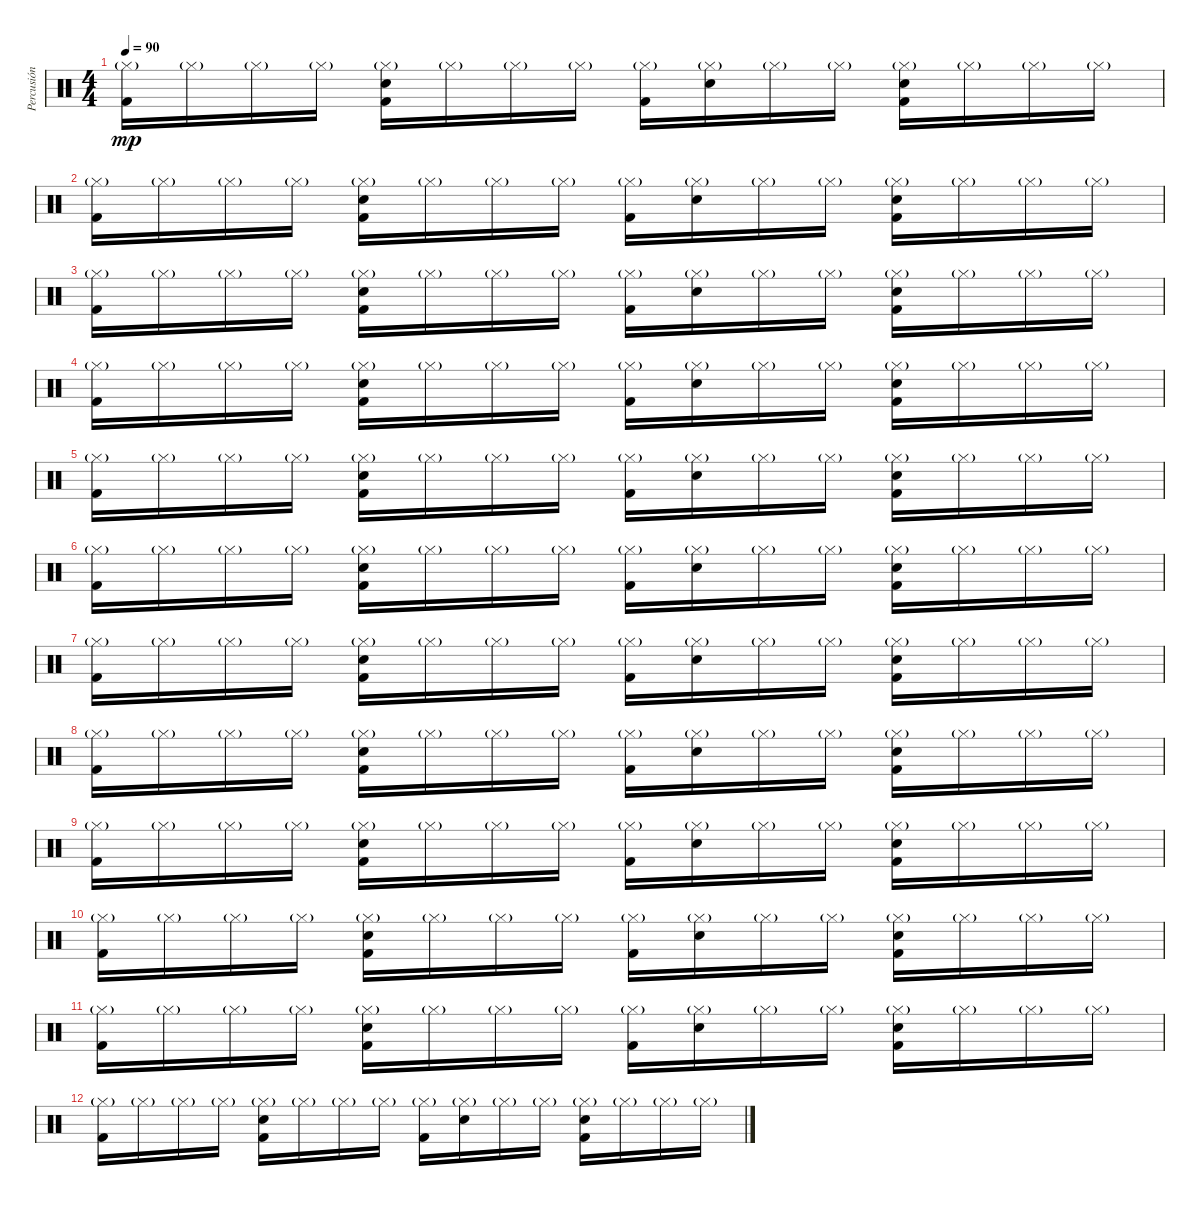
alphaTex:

\track ("Percusión" "Percusión") {instrument percussion}
\staff {score}
\articulation defaults
\ts (4 4)
\tempo 90
\clef neutral
\ks c
("Kick (hit) 2" "Hi-Hat (closed)"{g}).16{dy mp} "Hi-Hat (closed)"{g}.16 "Hi-Hat (closed)"{g}.16 "Hi-Hat (closed)"{g}.16 ("Kick (hit) 2" "Snare (hit) 2" "Hi-Hat (closed)"{g}).16 "Hi-Hat (closed)"{g}.16 "Hi-Hat (closed)"{g}.16 "Hi-Hat (closed)"{g}.16 ("Kick (hit) 2" "Hi-Hat (closed)"{g}).16 ("Snare (hit) 2" "Hi-Hat (closed)"{g}).16 "Hi-Hat (closed)"{g}.16 "Hi-Hat (closed)"{g}.16 ("Kick (hit) 2" "Snare (hit) 2" "Hi-Hat (closed)"{g}).16 "Hi-Hat (closed)"{g}.16 "Hi-Hat (closed)"{g}.16 "Hi-Hat (closed)"{g}.16 |
("Kick (hit) 2" "Hi-Hat (closed)"{g}).16 "Hi-Hat (closed)"{g}.16 "Hi-Hat (closed)"{g}.16 "Hi-Hat (closed)"{g}.16 ("Kick (hit) 2" "Snare (hit) 2" "Hi-Hat (closed)"{g}).16 "Hi-Hat (closed)"{g}.16 "Hi-Hat (closed)"{g}.16 "Hi-Hat (closed)"{g}.16 ("Kick (hit) 2" "Hi-Hat (closed)"{g}).16 ("Snare (hit) 2" "Hi-Hat (closed)"{g}).16 "Hi-Hat (closed)"{g}.16 "Hi-Hat (closed)"{g}.16 ("Kick (hit) 2" "Snare (hit) 2" "Hi-Hat (closed)"{g}).16 "Hi-Hat (closed)"{g}.16 "Hi-Hat (closed)"{g}.16 "Hi-Hat (closed)"{g}.16 |
("Kick (hit) 2" "Hi-Hat (closed)"{g}).16 "Hi-Hat (closed)"{g}.16 "Hi-Hat (closed)"{g}.16 "Hi-Hat (closed)"{g}.16 ("Kick (hit) 2" "Snare (hit) 2" "Hi-Hat (closed)"{g}).16 "Hi-Hat (closed)"{g}.16 "Hi-Hat (closed)"{g}.16 "Hi-Hat (closed)"{g}.16 ("Kick (hit) 2" "Hi-Hat (closed)"{g}).16 ("Snare (hit) 2" "Hi-Hat (closed)"{g}).16 "Hi-Hat (closed)"{g}.16 "Hi-Hat (closed)"{g}.16 ("Kick (hit) 2" "Snare (hit) 2" "Hi-Hat (closed)"{g}).16 "Hi-Hat (closed)"{g}.16 "Hi-Hat (closed)"{g}.16 "Hi-Hat (closed)"{g}.16 |
("Kick (hit) 2" "Hi-Hat (closed)"{g}).16 "Hi-Hat (closed)"{g}.16 "Hi-Hat (closed)"{g}.16 "Hi-Hat (closed)"{g}.16 ("Kick (hit) 2" "Snare (hit) 2" "Hi-Hat (closed)"{g}).16 "Hi-Hat (closed)"{g}.16 "Hi-Hat (closed)"{g}.16 "Hi-Hat (closed)"{g}.16 ("Kick (hit) 2" "Hi-Hat (closed)"{g}).16 ("Snare (hit) 2" "Hi-Hat (closed)"{g}).16 "Hi-Hat (closed)"{g}.16 "Hi-Hat (closed)"{g}.16 ("Kick (hit) 2" "Snare (hit) 2" "Hi-Hat (closed)"{g}).16 "Hi-Hat (closed)"{g}.16 "Hi-Hat (closed)"{g}.16 "Hi-Hat (closed)"{g}.16 |
("Kick (hit) 2" "Hi-Hat (closed)"{g}).16 "Hi-Hat (closed)"{g}.16 "Hi-Hat (closed)"{g}.16 "Hi-Hat (closed)"{g}.16 ("Kick (hit) 2" "Snare (hit) 2" "Hi-Hat (closed)"{g}).16 "Hi-Hat (closed)"{g}.16 "Hi-Hat (closed)"{g}.16 "Hi-Hat (closed)"{g}.16 ("Kick (hit) 2" "Hi-Hat (closed)"{g}).16 ("Snare (hit) 2" "Hi-Hat (closed)"{g}).16 "Hi-Hat (closed)"{g}.16 "Hi-Hat (closed)"{g}.16 ("Kick (hit) 2" "Snare (hit) 2" "Hi-Hat (closed)"{g}).16 "Hi-Hat (closed)"{g}.16 "Hi-Hat (closed)"{g}.16 "Hi-Hat (closed)"{g}.16 |
("Kick (hit) 2" "Hi-Hat (closed)"{g}).16 "Hi-Hat (closed)"{g}.16 "Hi-Hat (closed)"{g}.16 "Hi-Hat (closed)"{g}.16 ("Kick (hit) 2" "Snare (hit) 2" "Hi-Hat (closed)"{g}).16 "Hi-Hat (closed)"{g}.16 "Hi-Hat (closed)"{g}.16 "Hi-Hat (closed)"{g}.16 ("Kick (hit) 2" "Hi-Hat (closed)"{g}).16 ("Snare (hit) 2" "Hi-Hat (closed)"{g}).16 "Hi-Hat (closed)"{g}.16 "Hi-Hat (closed)"{g}.16 ("Kick (hit) 2" "Snare (hit) 2" "Hi-Hat (closed)"{g}).16 "Hi-Hat (closed)"{g}.16 "Hi-Hat (closed)"{g}.16 "Hi-Hat (closed)"{g}.16 |
("Kick (hit) 2" "Hi-Hat (closed)"{g}).16 "Hi-Hat (closed)"{g}.16 "Hi-Hat (closed)"{g}.16 "Hi-Hat (closed)"{g}.16 ("Kick (hit) 2" "Snare (hit) 2" "Hi-Hat (closed)"{g}).16 "Hi-Hat (closed)"{g}.16 "Hi-Hat (closed)"{g}.16 "Hi-Hat (closed)"{g}.16 ("Kick (hit) 2" "Hi-Hat (closed)"{g}).16 ("Snare (hit) 2" "Hi-Hat (closed)"{g}).16 "Hi-Hat (closed)"{g}.16 "Hi-Hat (closed)"{g}.16 ("Kick (hit) 2" "Snare (hit) 2" "Hi-Hat (closed)"{g}).16 "Hi-Hat (closed)"{g}.16 "Hi-Hat (closed)"{g}.16 "Hi-Hat (closed)"{g}.16 |
("Kick (hit) 2" "Hi-Hat (closed)"{g}).16 "Hi-Hat (closed)"{g}.16 "Hi-Hat (closed)"{g}.16 "Hi-Hat (closed)"{g}.16 ("Kick (hit) 2" "Snare (hit) 2" "Hi-Hat (closed)"{g}).16 "Hi-Hat (closed)"{g}.16 "Hi-Hat (closed)"{g}.16 "Hi-Hat (closed)"{g}.16 ("Kick (hit) 2" "Hi-Hat (closed)"{g}).16 ("Snare (hit) 2" "Hi-Hat (closed)"{g}).16 "Hi-Hat (closed)"{g}.16 "Hi-Hat (closed)"{g}.16 ("Kick (hit) 2" "Snare (hit) 2" "Hi-Hat (closed)"{g}).16 "Hi-Hat (closed)"{g}.16 "Hi-Hat (closed)"{g}.16 "Hi-Hat (closed)"{g}.16 |
("Kick (hit) 2" "Hi-Hat (closed)"{g}).16 "Hi-Hat (closed)"{g}.16 "Hi-Hat (closed)"{g}.16 "Hi-Hat (closed)"{g}.16 ("Kick (hit) 2" "Snare (hit) 2" "Hi-Hat (closed)"{g}).16 "Hi-Hat (closed)"{g}.16 "Hi-Hat (closed)"{g}.16 "Hi-Hat (closed)"{g}.16 ("Kick (hit) 2" "Hi-Hat (closed)"{g}).16 ("Snare (hit) 2" "Hi-Hat (closed)"{g}).16 "Hi-Hat (closed)"{g}.16 "Hi-Hat (closed)"{g}.16 ("Kick (hit) 2" "Snare (hit) 2" "Hi-Hat (closed)"{g}).16 "Hi-Hat (closed)"{g}.16 "Hi-Hat (closed)"{g}.16 "Hi-Hat (closed)"{g}.16 |
("Kick (hit) 2" "Hi-Hat (closed)"{g}).16 "Hi-Hat (closed)"{g}.16 "Hi-Hat (closed)"{g}.16 "Hi-Hat (closed)"{g}.16 ("Kick (hit) 2" "Snare (hit) 2" "Hi-Hat (closed)"{g}).16 "Hi-Hat (closed)"{g}.16 "Hi-Hat (closed)"{g}.16 "Hi-Hat (closed)"{g}.16 ("Kick (hit) 2" "Hi-Hat (closed)"{g}).16 ("Snare (hit) 2" "Hi-Hat (closed)"{g}).16 "Hi-Hat (closed)"{g}.16 "Hi-Hat (closed)"{g}.16 ("Kick (hit) 2" "Snare (hit) 2" "Hi-Hat (closed)"{g}).16 "Hi-Hat (closed)"{g}.16 "Hi-Hat (closed)"{g}.16 "Hi-Hat (closed)"{g}.16 |
("Kick (hit) 2" "Hi-Hat (closed)"{g}).16 "Hi-Hat (closed)"{g}.16 "Hi-Hat (closed)"{g}.16 "Hi-Hat (closed)"{g}.16 ("Kick (hit) 2" "Snare (hit) 2" "Hi-Hat (closed)"{g}).16 "Hi-Hat (closed)"{g}.16 "Hi-Hat (closed)"{g}.16 "Hi-Hat (closed)"{g}.16 ("Kick (hit) 2" "Hi-Hat (closed)"{g}).16 ("Snare (hit) 2" "Hi-Hat (closed)"{g}).16 "Hi-Hat (closed)"{g}.16 "Hi-Hat (closed)"{g}.16 ("Kick (hit) 2" "Snare (hit) 2" "Hi-Hat (closed)"{g}).16 "Hi-Hat (closed)"{g}.16 "Hi-Hat (closed)"{g}.16 "Hi-Hat (closed)"{g}.16 |
("Kick (hit) 2" "Hi-Hat (closed)"{g}).16 "Hi-Hat (closed)"{g}.16 "Hi-Hat (closed)"{g}.16 "Hi-Hat (closed)"{g}.16 ("Kick (hit) 2" "Snare (hit) 2" "Hi-Hat (closed)"{g}).16 "Hi-Hat (closed)"{g}.16 "Hi-Hat (closed)"{g}.16 "Hi-Hat (closed)"{g}.16 ("Kick (hit) 2" "Hi-Hat (closed)"{g}).16 ("Snare (hit) 2" "Hi-Hat (closed)"{g}).16 "Hi-Hat (closed)"{g}.16 "Hi-Hat (closed)"{g}.16 ("Kick (hit) 2" "Snare (hit) 2" "Hi-Hat (closed)"{g}).16 "Hi-Hat (closed)"{g}.16 "Hi-Hat (closed)"{g}.16 "Hi-Hat (closed)"{g}.16
